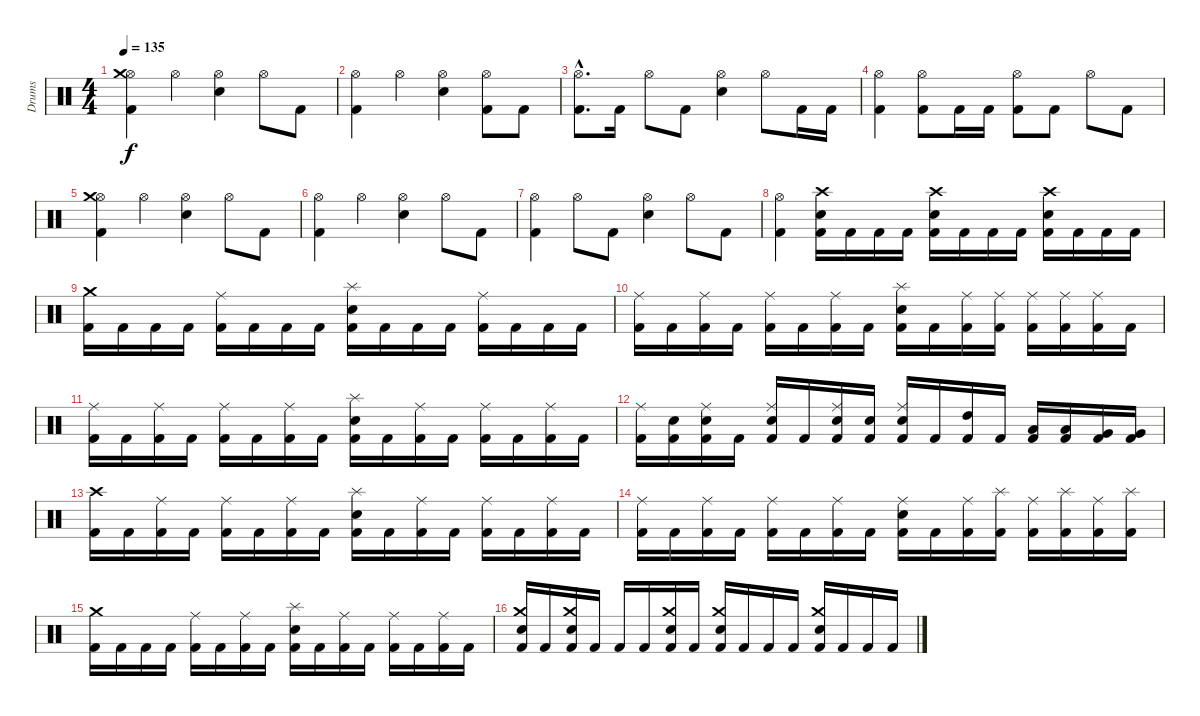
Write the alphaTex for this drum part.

\track ("Drums" "Drums") {instrument percussion}
\staff {score}
\articulation defaults
\ts (4 4)
\tempo 135
\clef neutral
\ks c
("Kick (hit) 2" "Hi-Hat (open)" "Crash medium (hit)").4{dy f} "Hi-Hat (open)".4 ("Snare (hit) 2" "Hi-Hat (open)").4 "Hi-Hat (open)".8 "Kick (hit) 2".8 |
("Kick (hit) 2" "Hi-Hat (open)").4 "Hi-Hat (open)".4 ("Snare (hit) 2" "Hi-Hat (open)").4 ("Kick (hit) 2" "Hi-Hat (open)").8 "Kick (hit) 2".8 |
("Kick (hit) 2"{hac} "Hi-Hat (open)"{hac}).8{d} "Kick (hit) 2".16 "Hi-Hat (open)".8 "Kick (hit) 2".8 ("Snare (hit) 2" "Hi-Hat (open)").4 "Hi-Hat (open)".8 "Kick (hit) 2".16 "Kick (hit) 2".16 |
("Kick (hit) 2" "Hi-Hat (open)").4 ("Kick (hit) 2" "Hi-Hat (open)").8 "Kick (hit) 2".16 "Kick (hit) 2".16 ("Kick (hit) 2" "Hi-Hat (open)").8 "Kick (hit) 2".8 "Hi-Hat (open)".8 "Kick (hit) 2".8 |
("Kick (hit) 2" "Hi-Hat (open)" "Crash medium (hit)").4 "Hi-Hat (open)".4 ("Snare (hit) 2" "Hi-Hat (open)").4 "Hi-Hat (open)".8 "Kick (hit) 2".8 |
("Kick (hit) 2" "Hi-Hat (open)").4 "Hi-Hat (open)".4 ("Snare (hit) 2" "Hi-Hat (open)").4 "Hi-Hat (open)".8 "Kick (hit) 2".8 |
("Kick (hit) 2" "Hi-Hat (open)").4 "Hi-Hat (open)".8 "Kick (hit) 2".8 ("Snare (hit) 2" "Hi-Hat (open)").4 "Hi-Hat (open)".8 "Kick (hit) 2".8 |
("Kick (hit) 2" "Hi-Hat (open)").4 ("Kick (hit) 2" "Snare (hit) 2" "Crash high (hit)").16 "Kick (hit) 2".16 "Kick (hit) 2".16 "Kick (hit) 2".16 ("Kick (hit) 2" "Snare (hit) 2" "Crash high (hit)").16 "Kick (hit) 2".16 "Kick (hit) 2".16 "Kick (hit) 2".16 ("Kick (hit) 2" "Snare (hit) 2" "Crash high (hit)").16 "Kick (hit) 2".16 "Kick (hit) 2".16 "Kick (hit) 2".16 |
("Kick (hit) 2" "Crash medium (hit)").16 "Kick (hit) 2".16 "Kick (hit) 2".16 "Kick (hit) 2".16 ("Kick (hit) 2" "Ride (middle)").16 "Kick (hit) 2".16 "Kick (hit) 2".16 "Kick (hit) 2".16 ("Kick (hit) 2" "Electric Snare (hit)" "Splash (hit)").16 "Kick (hit) 2".16 "Kick (hit) 2".16 "Kick (hit) 2".16 ("Kick (hit) 2" "Ride (middle)").16 "Kick (hit) 2".16 "Kick (hit) 2".16 "Kick (hit) 2".16 |
("Kick (hit) 2" "Ride (middle)").16 "Kick (hit) 2".16 ("Kick (hit) 2" "Ride (middle)").16 "Kick (hit) 2".16 ("Kick (hit) 2" "Ride (middle)").16 "Kick (hit) 2".16 ("Kick (hit) 2" "Ride (middle)").16 "Kick (hit) 2".16 ("Kick (hit) 2" "Electric Snare (hit)" "Splash (hit)").16 "Kick (hit) 2".16 ("Kick (hit) 2" "Ride (middle)").16 ("Kick (hit) 2" "Ride (middle)").16 ("Kick (hit) 2" "Ride (middle)").16 ("Kick (hit) 2" "Ride (middle)").16 ("Kick (hit) 2" "Ride (middle)").16 "Kick (hit) 2".16 |
("Kick (hit) 2" "Ride (middle)").16 "Kick (hit) 2".16 ("Kick (hit) 2" "Ride (middle)").16 "Kick (hit) 2".16 ("Kick (hit) 2" "Ride (middle)").16 "Kick (hit) 2".16 ("Kick (hit) 2" "Ride (middle)").16 "Kick (hit) 2".16 ("Kick (hit) 2" "Electric Snare (hit)" "Splash (hit)").16 "Kick (hit) 2".16 ("Kick (hit) 2" "Ride (middle)").16 "Kick (hit) 2".16 ("Kick (hit) 2" "Ride (middle)").16 "Kick (hit) 2".16 ("Kick (hit) 2" "Ride (middle)").16 "Kick (hit) 2".16 |
("Kick (hit) 2" "Ride (middle)").16 ("Kick (hit) 2" "Electric Snare (hit)").16 ("Kick (hit) 2" "Electric Snare (hit)" "Ride (middle)").16 "Kick (hit) 2".16 ("Kick (hit) 2" "Electric Snare (hit)" "Ride (middle)").16 "Kick (hit) 2".16 ("Kick (hit) 2" "Electric Snare (hit)" "Ride (middle)").16 ("Kick (hit) 2" "Electric Snare (hit)").16 ("Kick (hit) 2" "Electric Snare (hit)" "Ride (middle)").16 "Kick (hit) 2".16 ("Kick (hit) 2" "High Tom (hit)").16 "Kick (hit) 2".16 ("Kick (hit) 2" "Low Tom (hit)").16 ("Kick (hit) 2" "Low Tom (hit)").16 ("Kick (hit) 2" "Very Low Tom (hit)").16 ("Kick (hit) 2" "Very Low Tom (hit)").16 |
("Kick (hit) 2" "Crash high (hit)").16 "Kick (hit) 2".16 ("Kick (hit) 2" "Ride (middle)").16 "Kick (hit) 2".16 ("Kick (hit) 2" "Ride (middle)").16 "Kick (hit) 2".16 ("Kick (hit) 2" "Ride (middle)").16 "Kick (hit) 2".16 ("Kick (hit) 2" "Electric Snare (hit)" "Splash (hit)").16 "Kick (hit) 2".16 ("Kick (hit) 2" "Ride (middle)").16 "Kick (hit) 2".16 ("Kick (hit) 2" "Ride (middle)").16 "Kick (hit) 2".16 ("Kick (hit) 2" "Ride (middle)").16 "Kick (hit) 2".16 |
("Kick (hit) 2" "Ride (middle)").16 "Kick (hit) 2".16 ("Kick (hit) 2" "Ride (middle)").16 "Kick (hit) 2".16 ("Kick (hit) 2" "Ride (middle)").16 "Kick (hit) 2".16 ("Kick (hit) 2" "Ride (middle)").16 "Kick (hit) 2".16 ("Kick (hit) 2" "Electric Snare (hit)" "Ride (middle)").16 "Kick (hit) 2".16 ("Kick (hit) 2" "Ride (middle)").16 ("Kick (hit) 2" "Splash (hit)").16 ("Kick (hit) 2" "Ride (middle)").16 ("Kick (hit) 2" "Splash (hit)").16 ("Kick (hit) 2" "Ride (middle)").16 ("Kick (hit) 2" "Splash (hit)").16 |
("Kick (hit) 2" "Crash medium (hit)").16 "Kick (hit) 2".16 "Kick (hit) 2".16 "Kick (hit) 2".16 ("Kick (hit) 2" "Ride (middle)").16 "Kick (hit) 2".16 ("Kick (hit) 2" "Ride (middle)").16 "Kick (hit) 2".16 ("Kick (hit) 2" "Electric Snare (hit)" "Splash (hit)").16 "Kick (hit) 2".16 ("Kick (hit) 2" "Ride (middle)").16 "Kick (hit) 2".16 ("Kick (hit) 2" "Ride (middle)").16 "Kick (hit) 2".16 ("Kick (hit) 2" "Ride (middle)").16 "Kick (hit) 2".16 |
("Kick (hit) 2" "Electric Snare (hit)" "Crash medium (hit)").16 "Kick (hit) 2".16 ("Kick (hit) 2" "Electric Snare (hit)" "Crash medium (hit)").16 "Kick (hit) 2".16 "Kick (hit) 2".16 "Kick (hit) 2".16 ("Kick (hit) 2" "Electric Snare (hit)" "Crash medium (hit)").16 "Kick (hit) 2".16 ("Kick (hit) 2" "Electric Snare (hit)" "Crash medium (hit)").16 "Kick (hit) 2".16 "Kick (hit) 2".16 "Kick (hit) 2".16 ("Kick (hit) 2" "Electric Snare (hit)" "Crash medium (hit)").16 "Kick (hit) 2".16 "Kick (hit) 2".16 "Kick (hit) 2".16
